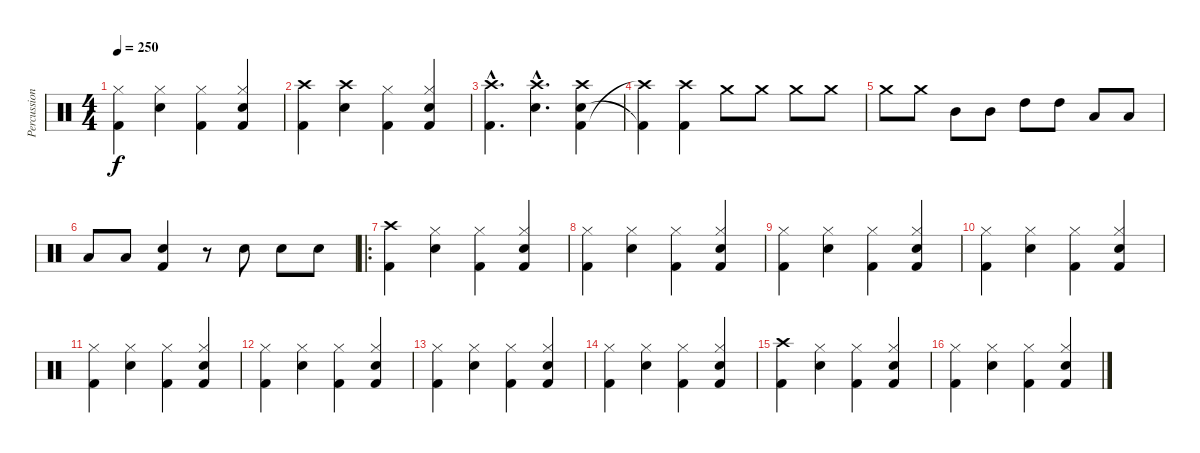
\track ("Percussion" "Percussion") {instrument percussion}
\staff {score}
\articulation defaults
\ts (4 4)
\tempo 250
\clef neutral
\ks c
("Kick (hit) 2" "Hi-Hat (closed)").4{dy f} ("Electric Snare (hit)" "Hi-Hat (closed)").4 ("Kick (hit) 2" "Hi-Hat (closed)").4 ("Electric Snare (hit)" "Kick (hit) 2" "Hi-Hat (closed)").4 |
("Kick (hit) 2" "Crash high (hit)").4 ("Electric Snare (hit)" "Crash high (hit)").4 ("Kick (hit) 2" "Hi-Hat (closed)").4 ("Electric Snare (hit)" "Kick (hit) 2" "Hi-Hat (closed)").4 |
("Kick (hit) 2"{hac} "Crash high (hit)"{hac}).4{d} ("Electric Snare (hit)"{hac} "Crash high (hit)"{hac}).4{d} ("Electric Snare (hit)" "Kick (hit) 2" "Crash high (hit)").4 |
("Kick (hit) 2"{t} "Crash high (hit)"{t}).4 ("Kick (hit) 2" "Crash high (hit)").4 "Crash medium (hit)".8 "Crash medium (hit)".8 "Crash medium (hit)".8 "Crash medium (hit)".8 |
"Crash medium (hit)".8 "Crash medium (hit)".8 "Mid Tom (hit)".8 "Mid Tom (hit)".8 "High Tom (hit)".8 "High Tom (hit)".8 "Low Tom (hit)".8 "Low Tom (hit)".8 |
"Low Tom (hit)".8 "Low Tom (hit)".8 ("Kick (hit) 2" "Electric Snare (hit)").4 r.8 "Electric Snare (hit)".8 "Electric Snare (hit)".8 "Electric Snare (hit)".8 |
\ro
("Kick (hit) 2" "Crash high (hit)").4 ("Electric Snare (hit)" "Hi-Hat (closed)").4 ("Kick (hit) 2" "Hi-Hat (closed)").4 ("Electric Snare (hit)" "Kick (hit) 2" "Hi-Hat (closed)").4 |
("Kick (hit) 2" "Hi-Hat (closed)").4 ("Electric Snare (hit)" "Hi-Hat (closed)").4 ("Kick (hit) 2" "Hi-Hat (closed)").4 ("Electric Snare (hit)" "Kick (hit) 2" "Hi-Hat (closed)").4 |
("Kick (hit) 2" "Hi-Hat (closed)").4 ("Electric Snare (hit)" "Hi-Hat (closed)").4 ("Kick (hit) 2" "Hi-Hat (closed)").4 ("Electric Snare (hit)" "Kick (hit) 2" "Hi-Hat (closed)").4 |
("Kick (hit) 2" "Hi-Hat (closed)").4 ("Electric Snare (hit)" "Hi-Hat (closed)").4 ("Kick (hit) 2" "Hi-Hat (closed)").4 ("Electric Snare (hit)" "Kick (hit) 2" "Hi-Hat (closed)").4 |
("Kick (hit) 2" "Hi-Hat (closed)").4 ("Electric Snare (hit)" "Hi-Hat (closed)").4 ("Kick (hit) 2" "Hi-Hat (closed)").4 ("Electric Snare (hit)" "Kick (hit) 2" "Hi-Hat (closed)").4 |
("Kick (hit) 2" "Hi-Hat (closed)").4 ("Electric Snare (hit)" "Hi-Hat (closed)").4 ("Kick (hit) 2" "Hi-Hat (closed)").4 ("Electric Snare (hit)" "Kick (hit) 2" "Hi-Hat (closed)").4 |
("Kick (hit) 2" "Hi-Hat (closed)").4 ("Electric Snare (hit)" "Hi-Hat (closed)").4 ("Kick (hit) 2" "Hi-Hat (closed)").4 ("Electric Snare (hit)" "Kick (hit) 2" "Hi-Hat (closed)").4 |
("Kick (hit) 2" "Hi-Hat (closed)").4 ("Electric Snare (hit)" "Hi-Hat (closed)").4 ("Kick (hit) 2" "Hi-Hat (closed)").4 ("Electric Snare (hit)" "Kick (hit) 2" "Hi-Hat (closed)").4 |
("Kick (hit) 2" "Crash high (hit)").4 ("Electric Snare (hit)" "Hi-Hat (closed)").4 ("Kick (hit) 2" "Hi-Hat (closed)").4 ("Electric Snare (hit)" "Kick (hit) 2" "Hi-Hat (closed)").4 |
("Kick (hit) 2" "Hi-Hat (closed)").4 ("Electric Snare (hit)" "Hi-Hat (closed)").4 ("Kick (hit) 2" "Hi-Hat (closed)").4 ("Electric Snare (hit)" "Kick (hit) 2" "Hi-Hat (closed)").4
